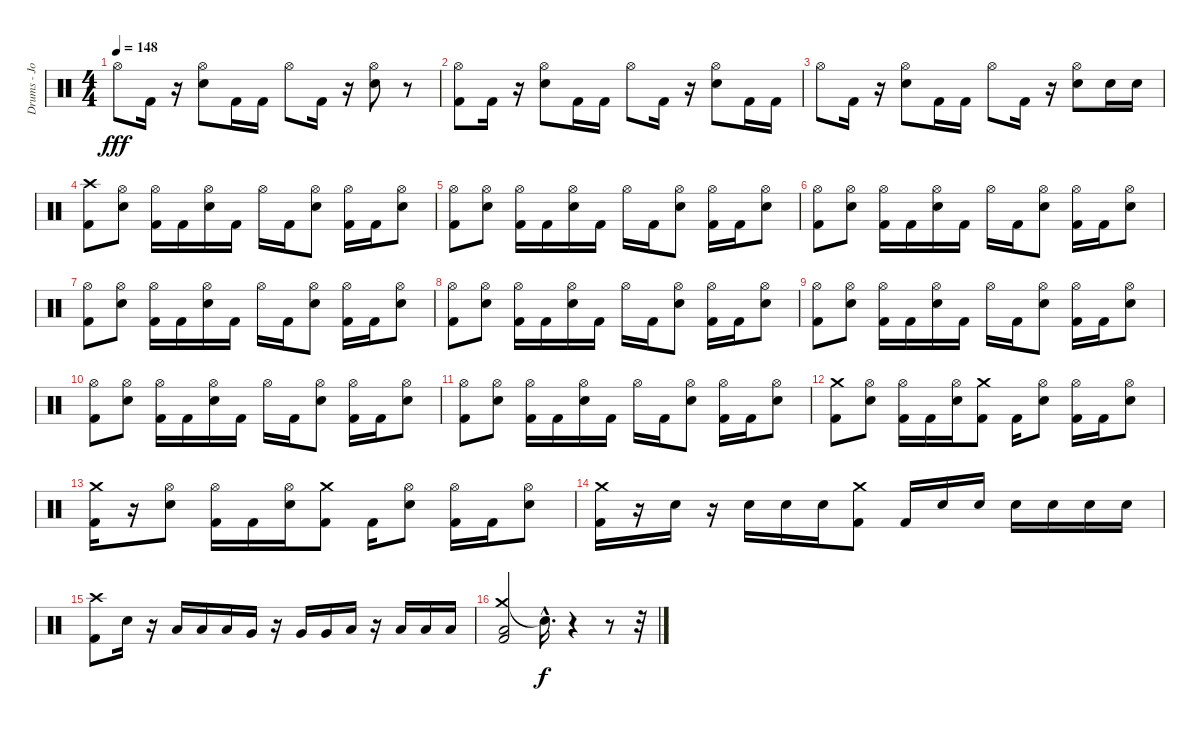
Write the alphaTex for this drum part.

\track ("Drums - Jordan" "Drums - Jo") {instrument percussion}
\staff {score}
\articulation defaults
\ts (4 4)
\tempo 148
\clef neutral
\ks c "Hi-Hat (open)".8{dy fff} "Kick (hit) 2".16
r.16 ("Electric Snare (hit)" "Hi-Hat (open)").8 "Kick (hit) 2".16 "Kick (hit) 2".16 "Hi-Hat (open)".8 "Kick (hit) 2".16 r.16 ("Electric Snare (hit)" "Hi-Hat (open)").8 r.8 |
("Kick (hit) 2" "Hi-Hat (open)").8 "Kick (hit) 2".16 r.16 ("Electric Snare (hit)" "Hi-Hat (open)").8 "Kick (hit) 2".16 "Kick (hit) 2".16 "Hi-Hat (open)".8 "Kick (hit) 2".16 r.16 ("Electric Snare (hit)" "Hi-Hat (open)").8 "Kick (hit) 2".16 "Kick (hit) 2".16 |
"Hi-Hat (open)".8 "Kick (hit) 2".16 r.16 ("Electric Snare (hit)" "Hi-Hat (open)").8 "Kick (hit) 2".16 "Kick (hit) 2".16 "Hi-Hat (open)".8 "Kick (hit) 2".16 r.16 ("Electric Snare (hit)" "Hi-Hat (open)").8 "Electric Snare (hit)".16 "Electric Snare (hit)".16 |
("Kick (hit) 2" "Crash high (hit)").8 ("Electric Snare (hit)" "Hi-Hat (open)").8 ("Kick (hit) 2" "Hi-Hat (open)").16 "Kick (hit) 2".16 ("Electric Snare (hit)" "Hi-Hat (open)").16 "Kick (hit) 2".16 "Hi-Hat (open)".16 "Kick (hit) 2".16 ("Electric Snare (hit)" "Hi-Hat (open)").8 ("Kick (hit) 2" "Hi-Hat (open)").16 "Kick (hit) 2".16 ("Electric Snare (hit)" "Hi-Hat (open)").8 |
("Kick (hit) 2" "Hi-Hat (open)").8 ("Electric Snare (hit)" "Hi-Hat (open)").8 ("Kick (hit) 2" "Hi-Hat (open)").16 "Kick (hit) 2".16 ("Electric Snare (hit)" "Hi-Hat (open)").16 "Kick (hit) 2".16 "Hi-Hat (open)".16 "Kick (hit) 2".16 ("Electric Snare (hit)" "Hi-Hat (open)").8 ("Kick (hit) 2" "Hi-Hat (open)").16 "Kick (hit) 2".16 ("Electric Snare (hit)" "Hi-Hat (open)").8 |
("Kick (hit) 2" "Hi-Hat (open)").8 ("Electric Snare (hit)" "Hi-Hat (open)").8 ("Kick (hit) 2" "Hi-Hat (open)").16 "Kick (hit) 2".16 ("Electric Snare (hit)" "Hi-Hat (open)").16 "Kick (hit) 2".16 "Hi-Hat (open)".16 "Kick (hit) 2".16 ("Electric Snare (hit)" "Hi-Hat (open)").8 ("Kick (hit) 2" "Hi-Hat (open)").16 "Kick (hit) 2".16 ("Electric Snare (hit)" "Hi-Hat (open)").8 |
("Kick (hit) 2" "Hi-Hat (open)").8 ("Electric Snare (hit)" "Hi-Hat (open)").8 ("Kick (hit) 2" "Hi-Hat (open)").16 "Kick (hit) 2".16 ("Electric Snare (hit)" "Hi-Hat (open)").16 "Kick (hit) 2".16 "Hi-Hat (open)".16 "Kick (hit) 2".16 ("Electric Snare (hit)" "Hi-Hat (open)").8 ("Kick (hit) 2" "Hi-Hat (open)").16 "Kick (hit) 2".16 ("Electric Snare (hit)" "Hi-Hat (open)").8 |
("Kick (hit) 2" "Hi-Hat (open)").8 ("Electric Snare (hit)" "Hi-Hat (open)").8 ("Kick (hit) 2" "Hi-Hat (open)").16 "Kick (hit) 2".16 ("Electric Snare (hit)" "Hi-Hat (open)").16 "Kick (hit) 2".16 "Hi-Hat (open)".16 "Kick (hit) 2".16 ("Electric Snare (hit)" "Hi-Hat (open)").8 ("Kick (hit) 2" "Hi-Hat (open)").16 "Kick (hit) 2".16 ("Electric Snare (hit)" "Hi-Hat (open)").8 |
("Kick (hit) 2" "Hi-Hat (open)").8 ("Electric Snare (hit)" "Hi-Hat (open)").8 ("Kick (hit) 2" "Hi-Hat (open)").16 "Kick (hit) 2".16 ("Electric Snare (hit)" "Hi-Hat (open)").16 "Kick (hit) 2".16 "Hi-Hat (open)".16 "Kick (hit) 2".16 ("Electric Snare (hit)" "Hi-Hat (open)").8 ("Kick (hit) 2" "Hi-Hat (open)").16 "Kick (hit) 2".16 ("Electric Snare (hit)" "Hi-Hat (open)").8 |
("Kick (hit) 2" "Hi-Hat (open)").8 ("Electric Snare (hit)" "Hi-Hat (open)").8 ("Kick (hit) 2" "Hi-Hat (open)").16 "Kick (hit) 2".16 ("Electric Snare (hit)" "Hi-Hat (open)").16 "Kick (hit) 2".16 "Hi-Hat (open)".16 "Kick (hit) 2".16 ("Electric Snare (hit)" "Hi-Hat (open)").8 ("Kick (hit) 2" "Hi-Hat (open)").16 "Kick (hit) 2".16 ("Electric Snare (hit)" "Hi-Hat (open)").8 |
("Kick (hit) 2" "Hi-Hat (open)").8 ("Electric Snare (hit)" "Hi-Hat (open)").8 ("Kick (hit) 2" "Hi-Hat (open)").16 "Kick (hit) 2".16 ("Electric Snare (hit)" "Hi-Hat (open)").16 "Kick (hit) 2".16 "Hi-Hat (open)".16 "Kick (hit) 2".16 ("Electric Snare (hit)" "Hi-Hat (open)").8 ("Kick (hit) 2" "Hi-Hat (open)").16 "Kick (hit) 2".16 ("Electric Snare (hit)" "Hi-Hat (open)").8 |
("Kick (hit) 2" "Crash medium (hit)").8 ("Electric Snare (hit)" "Hi-Hat (open)").8 ("Kick (hit) 2" "Hi-Hat (open)").16 "Kick (hit) 2".16 ("Electric Snare (hit)" "Hi-Hat (open)").16 ("Kick (hit) 2" "Crash medium (hit)").8 "Kick (hit) 2".16 ("Electric Snare (hit)" "Hi-Hat (open)").8 ("Kick (hit) 2" "Hi-Hat (open)").16 "Kick (hit) 2".16 ("Electric Snare (hit)" "Hi-Hat (open)").8 |
("Kick (hit) 2" "Crash medium (hit)").16 r.16 ("Electric Snare (hit)" "Hi-Hat (open)").8 ("Kick (hit) 2" "Hi-Hat (open)").16 "Kick (hit) 2".16 ("Electric Snare (hit)" "Hi-Hat (open)").16 ("Kick (hit) 2" "Crash medium (hit)").8 "Kick (hit) 2".16 ("Electric Snare (hit)" "Hi-Hat (open)").8 ("Kick (hit) 2" "Hi-Hat (open)").16 "Kick (hit) 2".16 ("Electric Snare (hit)" "Hi-Hat (open)").8 |
("Crash medium (hit)" "Kick (hit) 2").16 r.16 "Electric Snare (hit)".16 r.16 "Electric Snare (hit)".16 "Electric Snare (hit)".16 "Electric Snare (hit)".16 ("Crash medium (hit)" "Kick (hit) 2").8 "Kick (hit) 2".16 "Electric Snare (hit)".16 "Electric Snare (hit)".16 "Electric Snare (hit)".16 "Electric Snare (hit)".16 "Electric Snare (hit)".16 "Electric Snare (hit)".16 |
("Crash high (hit)" "Kick (hit) 2").8 "Electric Snare (hit)".16 r.16 "Low Tom (hit)".16 "Low Tom (hit)".16 "Low Tom (hit)".16 "Very Low Tom (hit)".16 r.16 "Very Low Tom (hit)".16 "Very Low Tom (hit)".16 "Low Floor Tom (hit)".16 r.16 "Low Floor Tom (hit)".16 "Low Floor Tom (hit)".16 "Low Floor Tom (hit)".16 |
("Crash medium (hit)" "Kick (hit) 2" "Low Floor Tom (hit)").2 "Snare (hit)"{hac t}.16{d dy f} r.4 r.8 r.32
